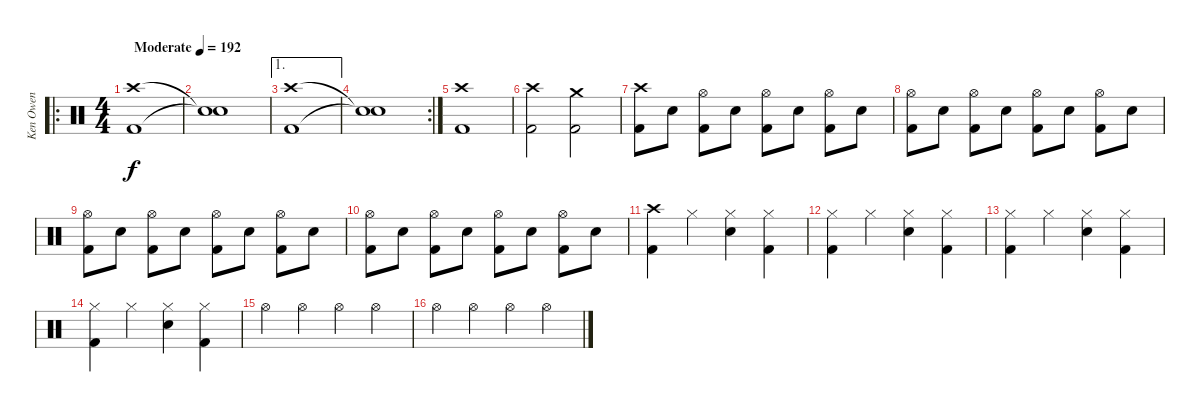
\track ("Ken Owen" "Ken Owen") {instrument percussion}
\staff {score}
\articulation defaults
\ro
\ts (4 4)
\tempo (192 "Moderate")
\clef neutral
\ks c
("Crash high (hit)" "Kick (hit) 2").1{dy f} |
("Snare (hit)"{t} "Snare (hit)"{t}).1 |
\ae 1
("Crash high (hit)" "Kick (hit) 2").1 |
\rc 2
("Snare (hit)"{t} "Snare (hit)"{t}).1 |
("Crash high (hit)" "Kick (hit) 2").1 |
("Crash high (hit)" "Kick (hit) 2").2 ("Crash medium (hit)" "Kick (hit) 2").2 |
("Crash high (hit)" "Kick (hit) 2").8 "Snare (hit) 2".8 ("Hi-Hat (open)" "Kick (hit) 2").8 "Snare (hit) 2".8 ("Hi-Hat (open)" "Kick (hit) 2").8 "Snare (hit) 2".8 ("Hi-Hat (open)" "Kick (hit) 2").8 "Snare (hit) 2".8 |
("Hi-Hat (open)" "Kick (hit) 2").8 "Snare (hit) 2".8 ("Hi-Hat (open)" "Kick (hit) 2").8 "Snare (hit) 2".8 ("Hi-Hat (open)" "Kick (hit) 2").8 "Snare (hit) 2".8 ("Hi-Hat (open)" "Kick (hit) 2").8 "Snare (hit) 2".8 |
("Hi-Hat (open)" "Kick (hit) 2").8 "Snare (hit) 2".8 ("Hi-Hat (open)" "Kick (hit) 2").8 "Snare (hit) 2".8 ("Hi-Hat (open)" "Kick (hit) 2").8 "Snare (hit) 2".8 ("Hi-Hat (open)" "Kick (hit) 2").8 "Snare (hit) 2".8 |
("Hi-Hat (open)" "Kick (hit) 2").8 "Snare (hit) 2".8 ("Hi-Hat (open)" "Kick (hit) 2").8 "Snare (hit) 2".8 ("Hi-Hat (open)" "Kick (hit) 2").8 "Snare (hit) 2".8 ("Hi-Hat (open)" "Kick (hit) 2").8 "Snare (hit) 2".8 |
("Crash high (hit)" "Kick (hit) 2").4 "Hi-Hat (closed)".4 ("Hi-Hat (closed)" "Snare (hit) 2").4 ("Hi-Hat (closed)" "Kick (hit) 2").4 |
("Hi-Hat (closed)" "Kick (hit) 2").4 "Hi-Hat (closed)".4 ("Hi-Hat (closed)" "Snare (hit) 2").4 ("Hi-Hat (closed)" "Kick (hit) 2").4 |
("Hi-Hat (closed)" "Kick (hit) 2").4 "Hi-Hat (closed)".4 ("Hi-Hat (closed)" "Snare (hit) 2").4 ("Hi-Hat (closed)" "Kick (hit) 2").4 |
("Hi-Hat (closed)" "Kick (hit) 2").4 "Hi-Hat (closed)".4 ("Hi-Hat (closed)" "Snare (hit) 2").4 ("Hi-Hat (closed)" "Kick (hit) 2").4 |
"Hi-Hat (open)".4 "Hi-Hat (open)".4 "Hi-Hat (open)".4 "Hi-Hat (open)".4 |
"Hi-Hat (open)".4 "Hi-Hat (open)".4 "Hi-Hat (open)".4 "Hi-Hat (open)".4
